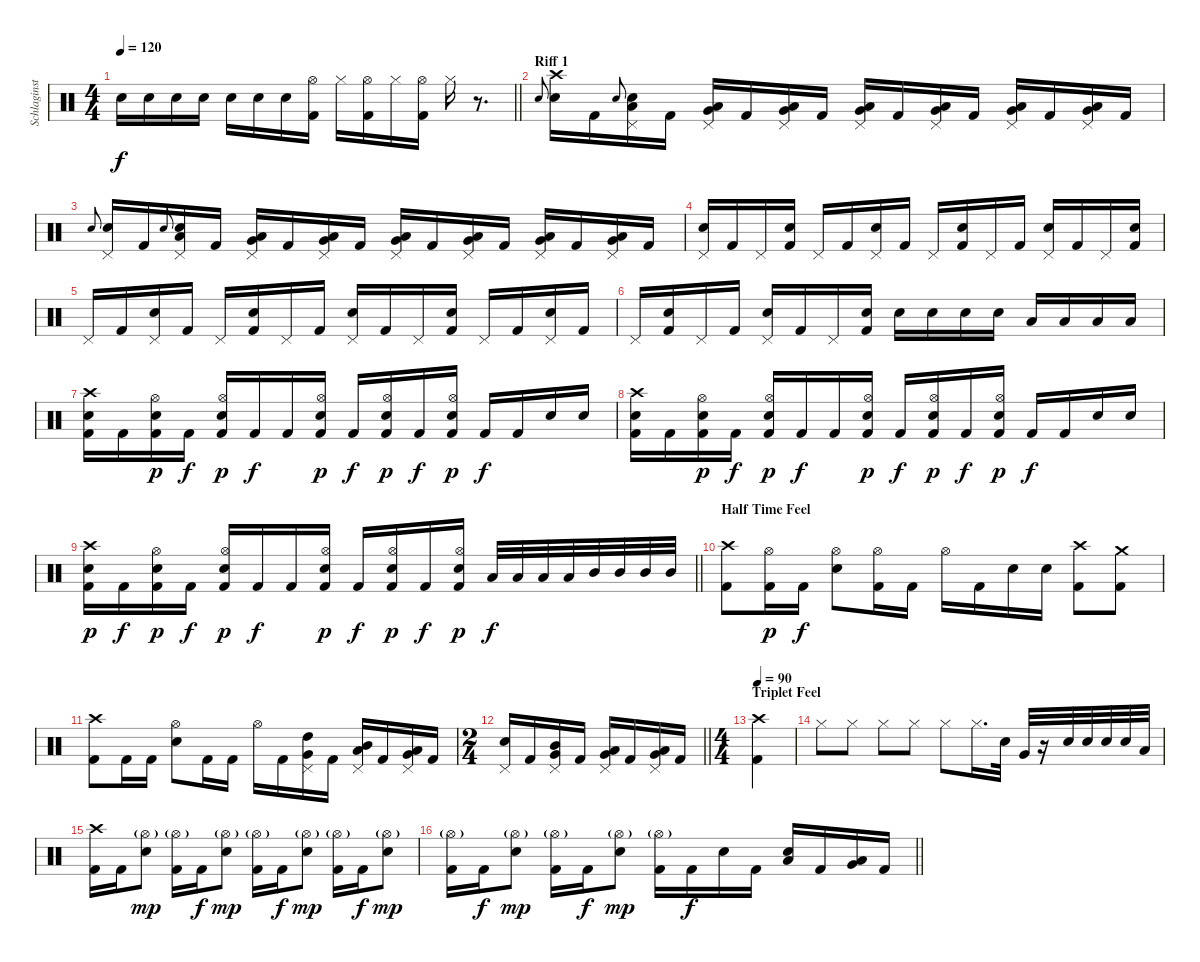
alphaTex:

\track ("Schlaginstrumente - Auswahl" "Schlaginst") {instrument percussion}
\staff {score}
\articulation defaults
\ts (4 4)
\tempo 120
\clef neutral
\barLineRight lightlight
\ks c "Electric Snare (hit)".16{dy f} "Electric Snare (hit)".16 "Electric Snare (hit)".16 "Electric Snare (hit)".16 "Electric Snare (hit)".16 "Electric Snare (hit)".16 "Electric Snare (hit)".16
("Hi-Hat (open)" "Kick (hit) 2").16 "Hi-Hat (closed)".16 ("Hi-Hat (open)" "Kick (hit) 2").16 "Hi-Hat (closed)".16 ("Hi-Hat (open)" "Kick (hit) 2").16 "Hi-Hat (closed)".16 r.8{d} |
\section ("" "Riff 1")
"Electric Snare (hit)".8{gr onbeat} ("Crash high (hit)" "Electric Snare (hit)").16 "Kick (hit) 2".16 "Electric Snare (hit)".8{gr onbeat} ("Pedal Hi-Hat (hit)" "Low Tom (hit)" "Electric Snare (hit)").16 "Kick (hit) 2".16 ("Pedal Hi-Hat (hit)" "Low Tom (hit)" "Very Low Tom (hit)").16 "Kick (hit) 2".16 ("Pedal Hi-Hat (hit)" "Low Tom (hit)" "Very Low Tom (hit)").16 "Kick (hit) 2".16 ("Pedal Hi-Hat (hit)" "Very Low Tom (hit)" "Low Floor Tom (hit)").16 "Kick (hit) 2".16 ("Pedal Hi-Hat (hit)" "Very Low Tom (hit)" "Low Floor Tom (hit)").16 "Kick (hit) 2".16 ("Pedal Hi-Hat (hit)" "Very Low Tom (hit)" "Low Floor Tom (hit)").16 "Kick (hit) 2".16 ("Pedal Hi-Hat (hit)" "Low Tom (hit)" "Very Low Tom (hit)").16 "Kick (hit) 2".16 |
"Electric Snare (hit)".8{gr onbeat} ("Pedal Hi-Hat (hit)" "Electric Snare (hit)").16 "Kick (hit) 2".16 "Electric Snare (hit)".8{gr onbeat} ("Pedal Hi-Hat (hit)" "Low Tom (hit)" "Electric Snare (hit)").16 "Kick (hit) 2".16 ("Pedal Hi-Hat (hit)" "Low Tom (hit)" "Very Low Tom (hit)").16 "Kick (hit) 2".16 ("Pedal Hi-Hat (hit)" "Low Tom (hit)" "Very Low Tom (hit)").16 "Kick (hit) 2".16 ("Pedal Hi-Hat (hit)" "Very Low Tom (hit)" "Low Floor Tom (hit)").16 "Kick (hit) 2".16 ("Pedal Hi-Hat (hit)" "Very Low Tom (hit)" "Low Floor Tom (hit)").16 "Kick (hit) 2".16 ("Pedal Hi-Hat (hit)" "Very Low Tom (hit)" "Low Floor Tom (hit)").16 "Kick (hit) 2".16 ("Pedal Hi-Hat (hit)" "Low Tom (hit)" "Very Low Tom (hit)").16 "Kick (hit) 2".16 |
("Pedal Hi-Hat (hit)" "Electric Snare (hit)").16 "Kick (hit) 2".16 "Pedal Hi-Hat (hit)".16 ("Electric Snare (hit)" "Kick (hit) 2").16 "Pedal Hi-Hat (hit)".16 "Kick (hit) 2".16 ("Pedal Hi-Hat (hit)" "Electric Snare (hit)").16 "Kick (hit) 2".16 "Pedal Hi-Hat (hit)".16 ("Electric Snare (hit)" "Kick (hit) 2").16 "Pedal Hi-Hat (hit)".16 "Kick (hit) 2".16 ("Pedal Hi-Hat (hit)" "Electric Snare (hit)").16 "Kick (hit) 2".16 "Pedal Hi-Hat (hit)".16 ("Electric Snare (hit)" "Kick (hit) 2").16 |
"Pedal Hi-Hat (hit)".16 "Kick (hit) 2".16 ("Pedal Hi-Hat (hit)" "Electric Snare (hit)").16 "Kick (hit) 2".16 "Pedal Hi-Hat (hit)".16 ("Electric Snare (hit)" "Kick (hit) 2").16 "Pedal Hi-Hat (hit)".16 "Kick (hit) 2".16 ("Pedal Hi-Hat (hit)" "Electric Snare (hit)").16 "Kick (hit) 2".16 "Pedal Hi-Hat (hit)".16 ("Electric Snare (hit)" "Kick (hit) 2").16 "Pedal Hi-Hat (hit)".16 "Kick (hit) 2".16 ("Pedal Hi-Hat (hit)" "Electric Snare (hit)").16 "Kick (hit) 2".16 |
"Pedal Hi-Hat (hit)".16 ("Electric Snare (hit)" "Kick (hit) 2").16 "Pedal Hi-Hat (hit)".16 "Kick (hit) 2".16 ("Pedal Hi-Hat (hit)" "Electric Snare (hit)").16 "Kick (hit) 2".16 "Pedal Hi-Hat (hit)".16 ("Electric Snare (hit)" "Kick (hit) 2").16 "Electric Snare (hit)".16 "Electric Snare (hit)".16 "Electric Snare (hit)".16 "Electric Snare (hit)".16 "Low Floor Tom (hit)".16 "Low Floor Tom (hit)".16 "Low Floor Tom (hit)".16 "Low Floor Tom (hit)".16 |
("Crash high (hit)" "Electric Snare (hit)" "Kick (hit) 2").16 "Kick (hit) 2".16 ("Hi-Hat (open)" "Electric Snare (hit)" "Kick (hit) 2").16{dy p} "Kick (hit) 2".16{dy f} ("Hi-Hat (open)" "Electric Snare (hit)" "Kick (hit) 2").16{dy p} "Kick (hit) 2".16{dy f} "Kick (hit) 2".16 ("Hi-Hat (open)" "Electric Snare (hit)" "Kick (hit) 2").16{dy p} "Kick (hit) 2".16{dy f} ("Hi-Hat (open)" "Electric Snare (hit)" "Kick (hit) 2").16{dy p} "Kick (hit) 2".16{dy f} ("Hi-Hat (open)" "Electric Snare (hit)" "Kick (hit) 2").16{dy p} "Kick (hit) 2".16{dy f} "Kick (hit) 2".16 "Electric Snare (hit)".16 "Electric Snare (hit)".16 |
("Crash high (hit)" "Electric Snare (hit)" "Kick (hit) 2").16 "Kick (hit) 2".16 ("Hi-Hat (open)" "Electric Snare (hit)" "Kick (hit) 2").16{dy p} "Kick (hit) 2".16{dy f} ("Hi-Hat (open)" "Electric Snare (hit)" "Kick (hit) 2").16{dy p} "Kick (hit) 2".16{dy f} "Kick (hit) 2".16 ("Hi-Hat (open)" "Electric Snare (hit)" "Kick (hit) 2").16{dy p} "Kick (hit) 2".16{dy f} ("Hi-Hat (open)" "Electric Snare (hit)" "Kick (hit) 2").16{dy p} "Kick (hit) 2".16{dy f} ("Hi-Hat (open)" "Electric Snare (hit)" "Kick (hit) 2").16{dy p} "Kick (hit) 2".16{dy f} "Kick (hit) 2".16 "Electric Snare (hit)".16 "Electric Snare (hit)".16 |
\barLineRight lightlight
("Crash high (hit)" "Electric Snare (hit)" "Kick (hit) 2").16{dy p} "Kick (hit) 2".16{dy f} ("Hi-Hat (open)" "Electric Snare (hit)" "Kick (hit) 2").16{dy p} "Kick (hit) 2".16{dy f} ("Hi-Hat (open)" "Electric Snare (hit)" "Kick (hit) 2").16{dy p} "Kick (hit) 2".16{dy f} "Kick (hit) 2".16 ("Hi-Hat (open)" "Electric Snare (hit)" "Kick (hit) 2").16{dy p} "Kick (hit) 2".16{dy f} ("Hi-Hat (open)" "Electric Snare (hit)" "Kick (hit) 2").16{dy p} "Kick (hit) 2".16{dy f} ("Hi-Hat (open)" "Electric Snare (hit)" "Kick (hit) 2").16{dy p} "Low Tom (hit)".32{dy f} "Low Tom (hit)".32 "Low Tom (hit)".32 "Low Tom (hit)".32 "Mid Tom (hit)".32 "Mid Tom (hit)".32 "Mid Tom (hit)".32 "Mid Tom (hit)".32 |
\section ("" "Half Time Feel")
("Crash high (hit)" "Kick (hit) 2").8 ("Hi-Hat (open)" "Kick (hit) 2").16{dy p} "Kick (hit) 2".16{dy f} ("Hi-Hat (open)" "Electric Snare (hit)").8 ("Hi-Hat (open)" "Kick (hit) 2").16 "Kick (hit) 2".16 "Hi-Hat (open)".16 "Kick (hit) 2".16 "Electric Snare (hit)".16 "Electric Snare (hit)".16 ("Crash high (hit)" "Kick (hit) 2").8 ("Crash medium (hit)" "Kick (hit) 2").8 |
("Crash high (hit)" "Kick (hit) 2").8 "Kick (hit) 2".16 "Kick (hit) 2".16 ("Hi-Hat (open)" "Electric Snare (hit)").8 "Kick (hit) 2".16 "Kick (hit) 2".16 "Hi-Hat (open)".16 "Kick (hit) 2".16 ("Pedal Hi-Hat (hit)" "High Tom (hit)" "Very Low Tom (hit)").16 "Kick (hit) 2".16 ("Pedal Hi-Hat (hit)" "Mid Tom (hit)" "Low Floor Tom (hit)").16 "Kick (hit) 2".16 ("Pedal Hi-Hat (hit)" "Low Floor Tom (hit)" "Very Low Tom (hit)").16 "Kick (hit) 2".16 |
\ts (2 4)
\barLineRight lightlight
("Pedal Hi-Hat (hit)" "Electric Snare (hit)").16 "Kick (hit) 2".16 ("Pedal Hi-Hat (hit)" "Mid Tom (hit)" "Very Low Tom (hit)").16 "Kick (hit) 2".16 ("Pedal Hi-Hat (hit)" "Low Tom (hit)" "Very Low Tom (hit)").16 "Kick (hit) 2".16 ("Pedal Hi-Hat (hit)" "Very Low Tom (hit)" "Low Floor Tom (hit)").16 "Kick (hit) 2".16 |
\ts (4 4)
\section ("" "Triplet Feel")
\tempo 90
("Crash high (hit)" "Kick (hit) 2").4 |
"Hi-Hat (closed)".8 "Hi-Hat (closed)".8 "Hi-Hat (closed)".8 "Hi-Hat (closed)".8 "Hi-Hat (closed)".8 "Hi-Hat (closed)".16{d} "Electric Snare (hit)".32 "Very Low Tom (hit)".32 r.16 "Electric Snare (hit)".32 "Electric Snare (hit)".32 "Electric Snare (hit)".32 "Electric Snare (hit)".32 "Low Tom (hit)".32 |
("Crash high (hit)" "Kick (hit) 2").16 "Kick (hit) 2".16 ("Hi-Hat (open)"{g} "Electric Snare (hit)").8{dy mp} ("Hi-Hat (open)"{g} "Kick (hit) 2").16 "Kick (hit) 2".16{dy f} ("Hi-Hat (open)"{g} "Electric Snare (hit)").8{dy mp} ("Hi-Hat (open)"{g} "Kick (hit) 2").16 "Kick (hit) 2".16{dy f} ("Hi-Hat (open)"{g} "Electric Snare (hit)").8{dy mp} ("Hi-Hat (open)"{g} "Kick (hit) 2").16 "Kick (hit) 2".16{dy f} ("Hi-Hat (open)"{g} "Electric Snare (hit)").8{dy mp} |
\barLineRight lightlight
("Hi-Hat (open)"{g} "Kick (hit) 2").16 "Kick (hit) 2".16{dy f} ("Hi-Hat (open)"{g} "Electric Snare (hit)").8{dy mp} ("Hi-Hat (open)"{g} "Kick (hit) 2").16 "Kick (hit) 2".16{dy f} ("Hi-Hat (open)"{g} "Electric Snare (hit)").8{dy mp} ("Hi-Hat (open)"{g} "Kick (hit) 2").16 "Kick (hit) 2".16{dy f} "Electric Snare (hit)".16 "Kick (hit) 2".16 ("Low Floor Tom (hit)" "Electric Snare (hit)").16 "Kick (hit) 2".16 ("Low Floor Tom (hit)" "Very Low Tom (hit)").16 "Kick (hit) 2".16
